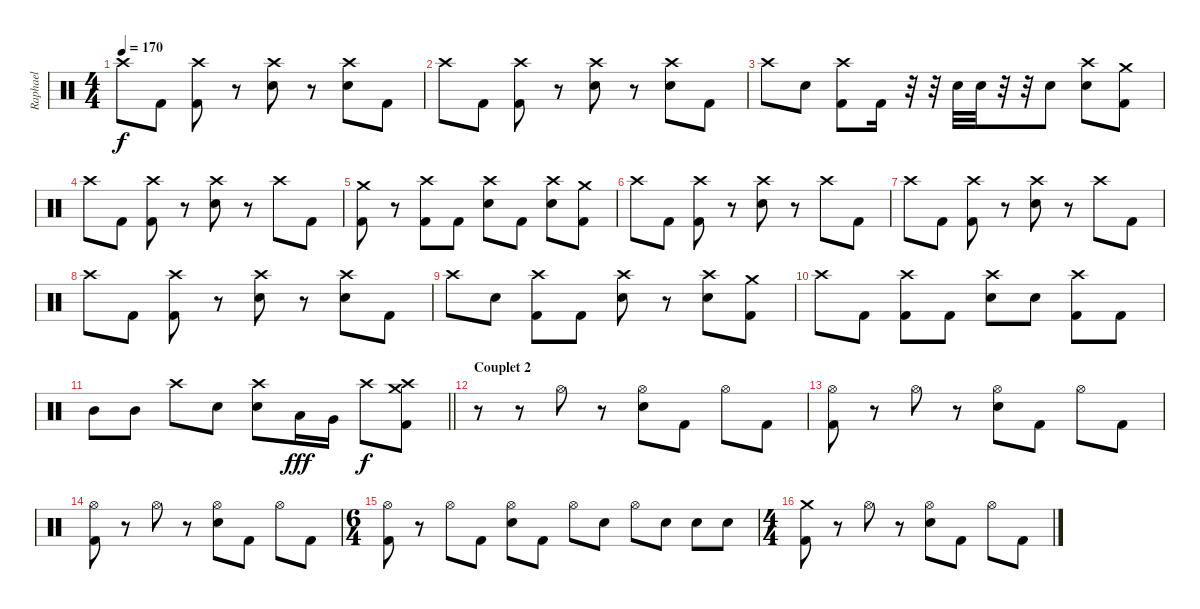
\track ("Raphael" "Raphael") {instrument percussion}
\staff {score}
\articulation defaults
\ts (4 4)
\tempo 170
\clef neutral
\ks c "Crash high (hit)".8{dy f} "Kick (hit) 2".8
("Kick (hit) 2" "Crash high (hit)").8 r.8 ("Snare (hit) 2" "Crash high (hit)").8 r.8 ("Snare (hit) 2" "Crash high (hit)").8 "Kick (hit) 2".8 |
"Crash high (hit)".8 "Kick (hit) 2".8 ("Kick (hit) 2" "Crash high (hit)").8 r.8 ("Snare (hit) 2" "Crash high (hit)").8 r.8 ("Snare (hit) 2" "Crash high (hit)").8 "Kick (hit) 2".8 |
"Crash high (hit)".8 "Snare (hit) 2".8 ("Kick (hit) 2" "Crash high (hit)").8 "Kick (hit) 2".16 r.32 r.32 "Snare (hit) 2".32 "Snare (hit) 2".32 r.32 r.32 "Snare (hit) 2".8 ("Snare (hit) 2" "Crash high (hit)").8 ("Kick (hit) 2" "Crash medium (hit)").8 |
"Crash high (hit)".8 "Kick (hit) 2".8 ("Kick (hit) 2" "Crash high (hit)").8 r.8 ("Snare (hit) 2" "Crash high (hit)").8 r.8 "Crash high (hit)".8 "Kick (hit) 2".8 |
("Kick (hit) 2" "Crash medium (hit)").8 r.8 ("Kick (hit) 2" "Crash high (hit)").8 "Kick (hit) 2".8 ("Snare (hit) 2" "Crash high (hit)").8 "Kick (hit) 2".8 ("Snare (hit) 2" "Crash high (hit)").8 ("Kick (hit) 2" "Crash medium (hit)").8 |
"Crash high (hit)".8 "Kick (hit) 2".8 ("Kick (hit) 2" "Crash high (hit)").8 r.8 ("Snare (hit) 2" "Crash high (hit)").8 r.8 "Crash high (hit)".8 "Kick (hit) 2".8 |
"Crash high (hit)".8 "Kick (hit) 2".8 ("Kick (hit) 2" "Crash high (hit)").8 r.8 ("Snare (hit) 2" "Crash high (hit)").8 r.8 "Crash high (hit)".8 "Kick (hit) 2".8 |
"Crash high (hit)".8 "Kick (hit) 2".8 ("Kick (hit) 2" "Crash high (hit)").8 r.8 ("Snare (hit) 2" "Crash high (hit)").8 r.8 ("Snare (hit) 2" "Crash high (hit)").8 "Kick (hit) 2".8 |
"Crash high (hit)".8 "Snare (hit) 2".8 ("Kick (hit) 2" "Crash high (hit)").8 "Kick (hit) 2".8 ("Snare (hit) 2" "Crash high (hit)").8 r.8 ("Snare (hit) 2" "Crash high (hit)").8 ("Kick (hit) 2" "Crash medium (hit)").8 |
"Crash high (hit)".8 "Kick (hit) 2".8 ("Kick (hit) 2" "Crash high (hit)").8 "Kick (hit) 2".8 ("Snare (hit) 2" "Crash high (hit)").8 "Snare (hit) 2".8 ("Kick (hit) 2" "Crash high (hit)").8 "Kick (hit) 2".8 |
\barLineRight lightlight "Mid Tom (hit)".8 "Mid Tom (hit)".8 "Crash high (hit)".8 "Snare (hit) 2".8
("Snare (hit) 2" "Crash high (hit)").8 "Low Tom (hit)".16{dy fff} "Very Low Tom (hit)".16 "Crash high (hit)".8{dy f} ("Kick (hit) 2" "Crash high (hit)" "Crash medium (hit)").8 |
\section ("" "Couplet 2")
r.8 r.8 "Hi-Hat (open)".8 r.8 ("Snare (hit) 2" "Hi-Hat (open)").8 "Kick (hit) 2".8 "Hi-Hat (open)".8 "Kick (hit) 2".8 |
("Kick (hit) 2" "Hi-Hat (open)").8 r.8 "Hi-Hat (open)".8 r.8 ("Snare (hit) 2" "Hi-Hat (open)").8 "Kick (hit) 2".8 "Hi-Hat (open)".8 "Kick (hit) 2".8 |
("Kick (hit) 2" "Hi-Hat (open)").8 r.8 "Hi-Hat (open)".8 r.8 ("Snare (hit) 2" "Hi-Hat (open)").8 "Kick (hit) 2".8 "Hi-Hat (open)".8 "Kick (hit) 2".8 |
\ts (6 4)
("Kick (hit) 2" "Hi-Hat (open)").8 r.8 "Hi-Hat (open)".8 "Kick (hit) 2".8 ("Snare (hit) 2" "Hi-Hat (open)").8 "Kick (hit) 2".8 "Hi-Hat (open)".8 "Snare (hit) 2".8 "Hi-Hat (open)".8 "Snare (hit) 2".8 "Snare (hit) 2".8 "Snare (hit) 2".8 |
\ts (4 4)
("Kick (hit) 2" "Crash medium (hit)").8 r.8 "Hi-Hat (open)".8 r.8 ("Snare (hit) 2" "Hi-Hat (open)").8 "Kick (hit) 2".8 "Hi-Hat (open)".8 "Kick (hit) 2".8
